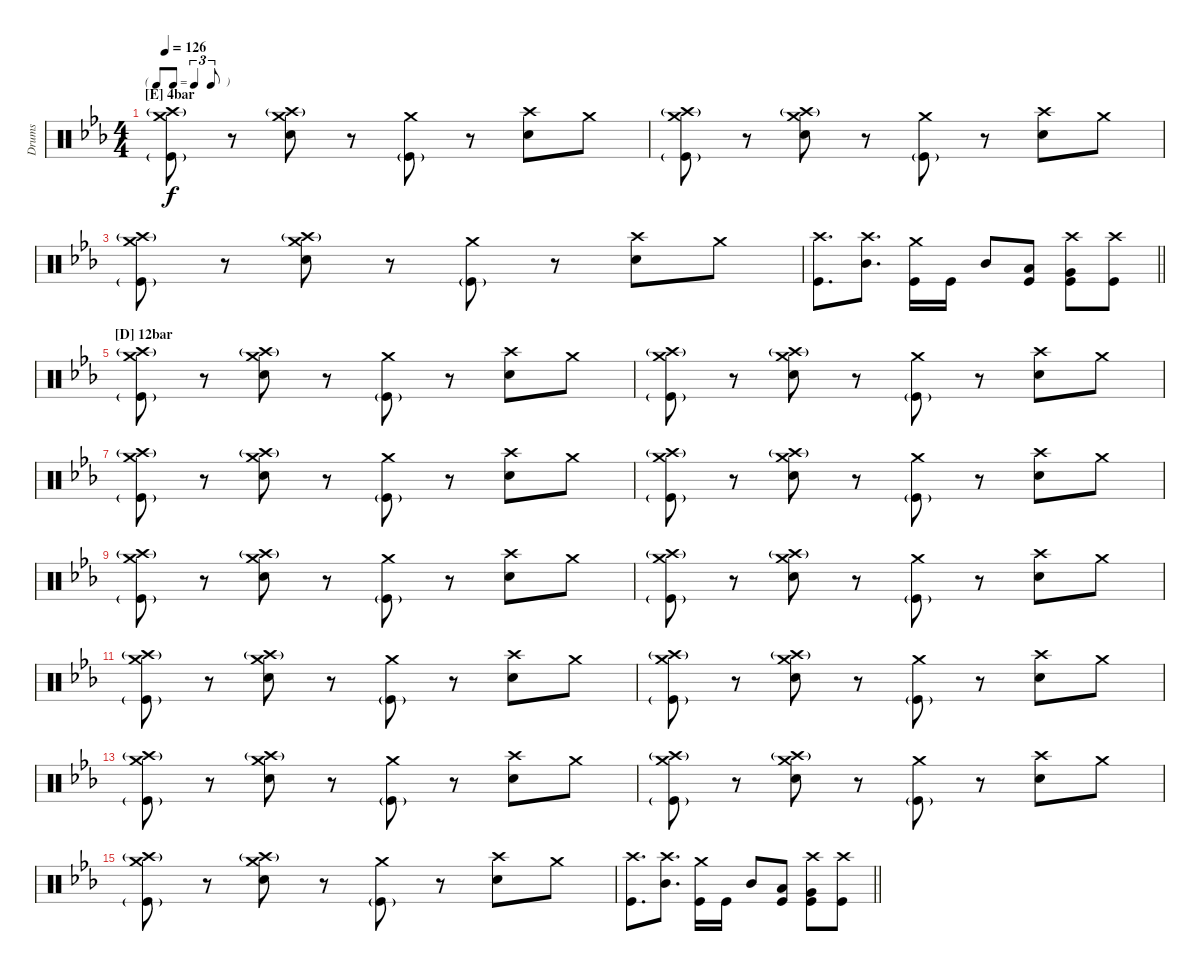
\bracketExtendMode nobrackets
\otherSystemsTrackNameOrientation horizontal
\defaultBarNumberDisplay FirstOfSystem
\track ("Drumkit" "Drums") {instrument percussion}
\staff {score}
\articulation defaults
\ts (4 4)
\tf triplet8th
\section ("E" "4bar")
\tempo 126
\clef neutral
\ks cminor
("Kick (hit)"{g} "Crash medium (hit)" "Crash high (hit)"{g}).8{dy f} r.8 ("Snare (hit) 2" "Crash medium (hit)" "Crash high (hit)"{g}).8 r.8 ("Kick (hit)"{g} "Crash medium (hit)").8 r.8 ("Snare (hit) 2" "Crash high (hit)").8 "Crash medium (hit)".8 |
("Kick (hit)"{g} "Crash medium (hit)" "Crash high (hit)"{g}).8 r.8 ("Snare (hit) 2" "Crash medium (hit)" "Crash high (hit)"{g}).8 r.8 ("Kick (hit)"{g} "Crash medium (hit)").8 r.8 ("Snare (hit) 2" "Crash high (hit)").8 "Crash medium (hit)".8 |
("Kick (hit)"{g} "Crash medium (hit)" "Crash high (hit)"{g}).8 r.8 ("Snare (hit) 2" "Crash medium (hit)" "Crash high (hit)"{g}).8 r.8 ("Kick (hit)"{g} "Crash medium (hit)").8 r.8 ("Snare (hit) 2" "Crash high (hit)").8 "Crash medium (hit)".8 |
\barLineRight lightlight
("Kick (hit)" "Crash high (hit)").8{d} ("Mid Tom (hit)" "Crash high (hit)").8{d} ("Kick (hit)" "Crash medium (hit)").16 "Kick (hit)".16 "Mid Tom (hit)".8 ("Low Tom (hit)" "Kick (hit)").8 ("Kick (hit)" "Very Low Tom (hit)" "Crash high (hit)").8 ("Kick (hit)" "Crash high (hit)").8 |
\section ("D" "12bar")
("Kick (hit)"{g} "Crash medium (hit)" "Crash high (hit)"{g}).8 r.8 ("Snare (hit) 2" "Crash medium (hit)" "Crash high (hit)"{g}).8 r.8 ("Kick (hit)"{g} "Crash medium (hit)").8 r.8 ("Snare (hit) 2" "Crash high (hit)").8 "Crash medium (hit)".8 |
("Kick (hit)"{g} "Crash medium (hit)" "Crash high (hit)"{g}).8 r.8 ("Snare (hit) 2" "Crash medium (hit)" "Crash high (hit)"{g}).8 r.8 ("Kick (hit)"{g} "Crash medium (hit)").8 r.8 ("Snare (hit) 2" "Crash high (hit)").8 "Crash medium (hit)".8 |
("Kick (hit)"{g} "Crash medium (hit)" "Crash high (hit)"{g}).8 r.8 ("Snare (hit) 2" "Crash medium (hit)" "Crash high (hit)"{g}).8 r.8 ("Kick (hit)"{g} "Crash medium (hit)").8 r.8 ("Snare (hit) 2" "Crash high (hit)").8 "Crash medium (hit)".8 |
("Kick (hit)"{g} "Crash medium (hit)" "Crash high (hit)"{g}).8 r.8 ("Snare (hit) 2" "Crash medium (hit)" "Crash high (hit)"{g}).8 r.8 ("Kick (hit)"{g} "Crash medium (hit)").8 r.8 ("Snare (hit) 2" "Crash high (hit)").8 "Crash medium (hit)".8 |
("Kick (hit)"{g} "Crash medium (hit)" "Crash high (hit)"{g}).8 r.8 ("Snare (hit) 2" "Crash medium (hit)" "Crash high (hit)"{g}).8 r.8 ("Kick (hit)"{g} "Crash medium (hit)").8 r.8 ("Snare (hit) 2" "Crash high (hit)").8 "Crash medium (hit)".8 |
("Kick (hit)"{g} "Crash medium (hit)" "Crash high (hit)"{g}).8 r.8 ("Snare (hit) 2" "Crash medium (hit)" "Crash high (hit)"{g}).8 r.8 ("Kick (hit)"{g} "Crash medium (hit)").8 r.8 ("Snare (hit) 2" "Crash high (hit)").8 "Crash medium (hit)".8 |
("Kick (hit)"{g} "Crash medium (hit)" "Crash high (hit)"{g}).8 r.8 ("Snare (hit) 2" "Crash medium (hit)" "Crash high (hit)"{g}).8 r.8 ("Kick (hit)"{g} "Crash medium (hit)").8 r.8 ("Snare (hit) 2" "Crash high (hit)").8 "Crash medium (hit)".8 |
("Kick (hit)"{g} "Crash medium (hit)" "Crash high (hit)"{g}).8 r.8 ("Snare (hit) 2" "Crash medium (hit)" "Crash high (hit)"{g}).8 r.8 ("Kick (hit)"{g} "Crash medium (hit)").8 r.8 ("Snare (hit) 2" "Crash high (hit)").8 "Crash medium (hit)".8 |
("Kick (hit)"{g} "Crash medium (hit)" "Crash high (hit)"{g}).8 r.8 ("Snare (hit) 2" "Crash medium (hit)" "Crash high (hit)"{g}).8 r.8 ("Kick (hit)"{g} "Crash medium (hit)").8 r.8 ("Snare (hit) 2" "Crash high (hit)").8 "Crash medium (hit)".8 |
("Kick (hit)"{g} "Crash medium (hit)" "Crash high (hit)"{g}).8 r.8 ("Snare (hit) 2" "Crash medium (hit)" "Crash high (hit)"{g}).8 r.8 ("Kick (hit)"{g} "Crash medium (hit)").8 r.8 ("Snare (hit) 2" "Crash high (hit)").8 "Crash medium (hit)".8 |
("Kick (hit)"{g} "Crash medium (hit)" "Crash high (hit)"{g}).8 r.8 ("Snare (hit) 2" "Crash medium (hit)" "Crash high (hit)"{g}).8 r.8 ("Kick (hit)"{g} "Crash medium (hit)").8 r.8 ("Snare (hit) 2" "Crash high (hit)").8 "Crash medium (hit)".8 |
\barLineRight lightlight
("Kick (hit)" "Crash high (hit)").8{d} ("Mid Tom (hit)" "Crash high (hit)").8{d} ("Kick (hit)" "Crash medium (hit)").16 "Kick (hit)".16 "Mid Tom (hit)".8 ("Low Tom (hit)" "Kick (hit)").8 ("Kick (hit)" "Very Low Tom (hit)" "Crash high (hit)").8 ("Kick (hit)" "Crash high (hit)").8
